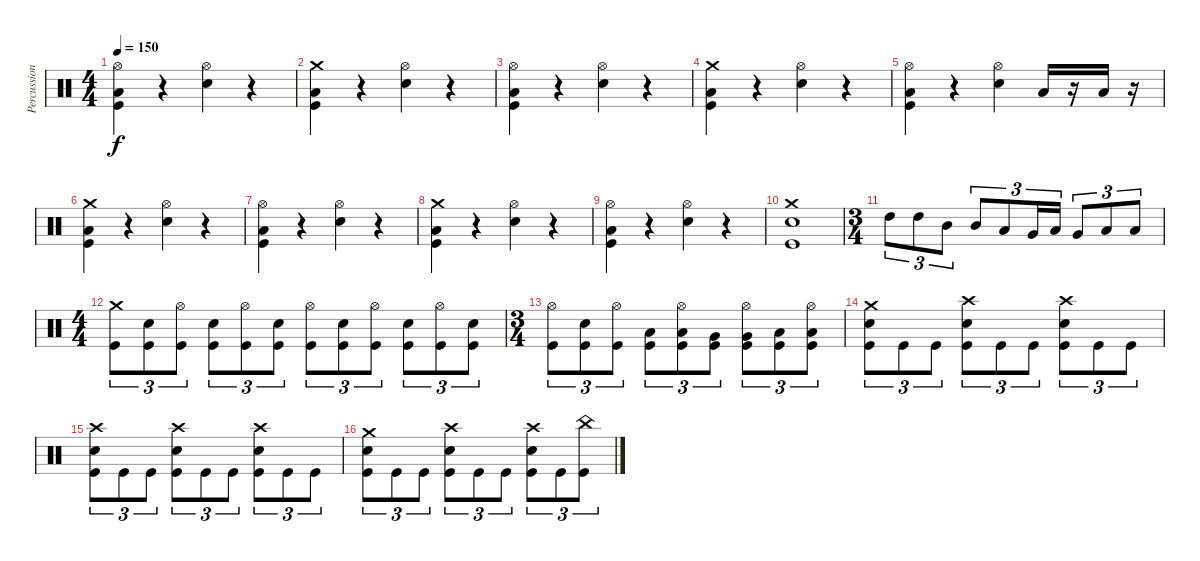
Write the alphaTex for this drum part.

\track ("Percussions" "Percussion") {instrument percussion}
\staff {score}
\articulation defaults
\ts (4 4)
\tempo 150
\clef neutral
\ks c
("Hi-Hat (open)" "Low Floor Tom (hit)" "Kick (hit)").4{dy f} r.4 ("Hi-Hat (open)" "Snare (hit) 2").4 r.4 |
("Crash medium (hit)" "Low Floor Tom (hit)" "Kick (hit)").4 r.4 ("Hi-Hat (open)" "Snare (hit) 2").4 r.4 |
("Hi-Hat (open)" "Low Floor Tom (hit)" "Kick (hit)").4 r.4 ("Hi-Hat (open)" "Snare (hit) 2").4 r.4 |
("Crash medium (hit)" "Low Floor Tom (hit)" "Kick (hit)").4 r.4 ("Hi-Hat (open)" "Snare (hit) 2").4 r.4 |
("Hi-Hat (open)" "Low Floor Tom (hit)" "Kick (hit)").4 r.4 ("Hi-Hat (open)" "Snare (hit) 2").4 "Low Floor Tom (hit)".16 r.16 "Low Floor Tom (hit)".16 r.16 |
("Crash medium (hit)" "Low Floor Tom (hit)" "Kick (hit)").4 r.4 ("Hi-Hat (open)" "Snare (hit) 2").4 r.4 |
("Hi-Hat (open)" "Low Floor Tom (hit)" "Kick (hit)").4 r.4 ("Hi-Hat (open)" "Snare (hit) 2").4 r.4 |
("Crash medium (hit)" "Low Floor Tom (hit)" "Kick (hit)").4 r.4 ("Hi-Hat (open)" "Snare (hit) 2").4 r.4 |
("Hi-Hat (open)" "Low Floor Tom (hit)" "Kick (hit)").4 r.4 ("Hi-Hat (open)" "Snare (hit) 2").4 r.4 |
("Crash medium (hit)" "Snare (hit) 2" "Kick (hit)").1 |
\ts (3 4)
"High Tom (hit)".8{tu (3 2)} "High Tom (hit)".8{tu (3 2)} "Mid Tom (hit)".8{tu (3 2)} "Mid Tom (hit)".8{tu (3 2)} "Low Tom (hit)".8{tu (3 2)} "Very Low Tom (hit)".16{tu (3 2)} "Low Tom (hit)".16{tu (3 2)} "Very Low Tom (hit)".8{tu (3 2)} "Low Floor Tom (hit)".8{tu (3 2)} "Low Floor Tom (hit)".8{tu (3 2)} |
\ts (4 4)
("Crash medium (hit)" "Kick (hit)").8{tu (3 2)} ("Snare (hit) 2" "Kick (hit)").8{tu (3 2)} ("Hi-Hat (open)" "Kick (hit)").8{tu (3 2)} ("Snare (hit) 2" "Kick (hit)").8{tu (3 2)} ("Hi-Hat (open)" "Kick (hit)").8{tu (3 2)} ("Snare (hit) 2" "Kick (hit)").8{tu (3 2)} ("Hi-Hat (open)" "Kick (hit)").8{tu (3 2)} ("Snare (hit) 2" "Kick (hit)").8{tu (3 2)} ("Hi-Hat (open)" "Kick (hit)").8{tu (3 2)} ("Snare (hit) 2" "Kick (hit)").8{tu (3 2)} ("Hi-Hat (open)" "Kick (hit)").8{tu (3 2)} ("Snare (hit) 2" "Kick (hit)").8{tu (3 2)} |
\ts (3 4)
("Hi-Hat (open)" "Kick (hit)").8{tu (3 2)} ("Snare (hit) 2" "Kick (hit)").8{tu (3 2)} ("Hi-Hat (open)" "Kick (hit)").8{tu (3 2)} ("Low Tom (hit)" "Kick (hit)").8{tu (3 2)} ("Hi-Hat (open)" "Low Tom (hit)" "Kick (hit)").8{tu (3 2)} ("Very Low Tom (hit)" "Kick (hit)").8{tu (3 2)} ("Hi-Hat (open)" "Very Low Tom (hit)" "Kick (hit)").8{tu (3 2)} ("Low Tom (hit)" "Kick (hit)").8{tu (3 2)} ("Hi-Hat (open)" "Low Tom (hit)" "Kick (hit)").8{tu (3 2)} |
("Crash medium (hit)" "Snare (hit) 2" "Kick (hit)").8{tu (3 2)} "Kick (hit)".8{tu (3 2)} "Kick (hit)".8{tu (3 2)} ("Crash high (hit)" "Snare (hit) 2" "Kick (hit)").8{tu (3 2)} "Kick (hit)".8{tu (3 2)} "Kick (hit)".8{tu (3 2)} ("Crash high (hit)" "Snare (hit) 2" "Kick (hit)").8{tu (3 2)} "Kick (hit)".8{tu (3 2)} "Kick (hit)".8{tu (3 2)} |
("Crash high (hit)" "Snare (hit) 2" "Kick (hit)").8{tu (3 2)} "Kick (hit)".8{tu (3 2)} "Kick (hit)".8{tu (3 2)} ("Crash high (hit)" "Snare (hit) 2" "Kick (hit)").8{tu (3 2)} "Kick (hit)".8{tu (3 2)} "Kick (hit)".8{tu (3 2)} ("Crash high (hit)" "Snare (hit) 2" "Kick (hit)").8{tu (3 2)} "Kick (hit)".8{tu (3 2)} "Kick (hit)".8{tu (3 2)} |
("Crash medium (hit)" "Snare (hit) 2" "Kick (hit)").8{tu (3 2)} "Kick (hit)".8{tu (3 2)} "Kick (hit)".8{tu (3 2)} ("Crash high (hit)" "Snare (hit) 2" "Kick (hit)").8{tu (3 2)} "Kick (hit)".8{tu (3 2)} "Kick (hit)".8{tu (3 2)} ("Crash high (hit)" "Snare (hit) 2" "Kick (hit)").8{tu (3 2)} "Kick (hit)".8{tu (3 2)} ("China (hit)" "Kick (hit)").8{tu (3 2)}
